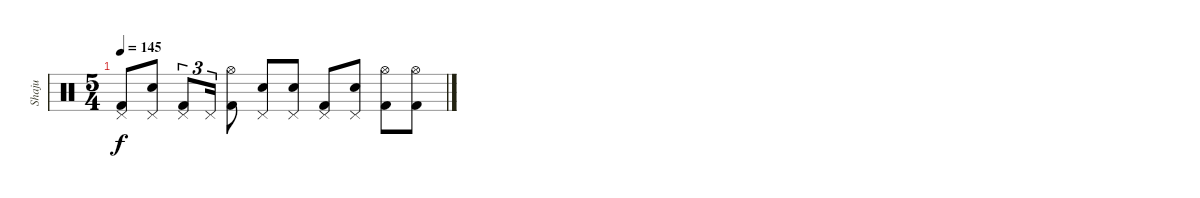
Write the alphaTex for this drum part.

\track ("Shaju" "Shaju") {instrument percussion}
\staff {score}
\articulation defaults
\ts (5 4)
\tempo 145
\clef neutral
\ks c
("Pedal Hi-Hat (hit)" "Kick (hit) 2").8{dy f} ("Pedal Hi-Hat (hit)" "Snare (hit) 2").8 ("Pedal Hi-Hat (hit)" "Kick (hit) 2").8{tu (3 2)} "Pedal Hi-Hat (hit)".16{tu (3 2)} ("Hi-Hat (open)" "Kick (hit) 2").8 ("Pedal Hi-Hat (hit)" "Snare (hit) 2").8 ("Pedal Hi-Hat (hit)" "Snare (hit) 2").8 ("Pedal Hi-Hat (hit)" "Kick (hit) 2").8 ("Pedal Hi-Hat (hit)" "Snare (hit) 2").8 ("Hi-Hat (open)" "Kick (hit) 2").8 ("Hi-Hat (open)" "Kick (hit) 2").8
